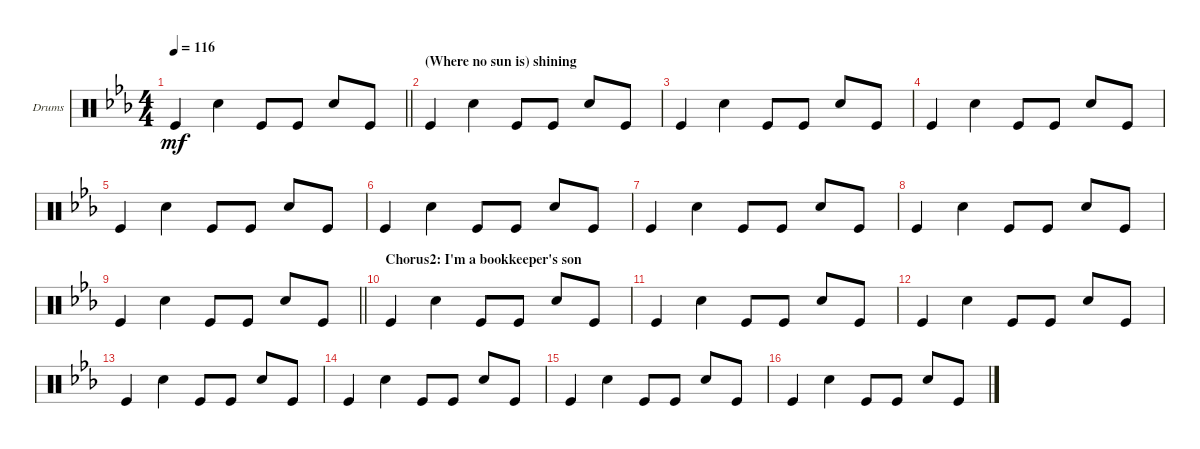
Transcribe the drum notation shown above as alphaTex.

\defaultSystemsLayout 4
\bracketExtendMode groupsimilarinstruments
\firstSystemTrackNameOrientation horizontal
\otherSystemsTrackNameOrientation horizontal
\track ("Drumkit" "Drums") {instrument percussion}
\staff {score}
\articulation defaults
\ts (4 4)
\tempo 116
\clef neutral
\barLineRight lightlight
\ks cminor "Kick (hit)".4{dy mf} "Snare (hit) 2".4 "Kick (hit)".8 "Kick (hit)".8 "Snare (hit) 2".8 "Kick (hit)".8
|
\section ("" "(Where no sun is) shining")
"Kick (hit)".4 "Snare (hit) 2".4 "Kick (hit)".8 "Kick (hit)".8 "Snare (hit) 2".8 "Kick (hit)".8 |
"Kick (hit)".4 "Snare (hit) 2".4 "Kick (hit)".8 "Kick (hit)".8 "Snare (hit) 2".8 "Kick (hit)".8 |
"Kick (hit)".4 "Snare (hit) 2".4 "Kick (hit)".8 "Kick (hit)".8 "Snare (hit) 2".8 "Kick (hit)".8 |
"Kick (hit)".4 "Snare (hit) 2".4 "Kick (hit)".8 "Kick (hit)".8 "Snare (hit) 2".8 "Kick (hit)".8 |
"Kick (hit)".4 "Snare (hit) 2".4 "Kick (hit)".8 "Kick (hit)".8 "Snare (hit) 2".8 "Kick (hit)".8 |
"Kick (hit)".4 "Snare (hit) 2".4 "Kick (hit)".8 "Kick (hit)".8 "Snare (hit) 2".8 "Kick (hit)".8 |
"Kick (hit)".4 "Snare (hit) 2".4 "Kick (hit)".8 "Kick (hit)".8 "Snare (hit) 2".8 "Kick (hit)".8 |
\scale
0.627769
\barLineRight lightlight "Kick (hit)".4 "Snare (hit) 2".4 "Kick (hit)".8 "Kick (hit)".8 "Snare (hit) 2".8 "Kick (hit)".8
|
\section ("" "Chorus2: I'm a bookkeeper's son")
\scale
0.37206 "Kick (hit)".4 "Snare (hit) 2".4 "Kick (hit)".8 "Kick (hit)".8 "Snare (hit) 2".8 "Kick (hit)".8 |
\scale
0.396721 "Kick (hit)".4 "Snare (hit) 2".4 "Kick (hit)".8 "Kick (hit)".8 "Snare (hit) 2".8 "Kick (hit)".8 |
\scale
0.348334 "Kick (hit)".4 "Snare (hit) 2".4 "Kick (hit)".8 "Kick (hit)".8 "Snare (hit) 2".8 "Kick (hit)".8 |
\scale
0.257554 "Kick (hit)".4 "Snare (hit) 2".4 "Kick (hit)".8 "Kick (hit)".8 "Snare (hit) 2".8 "Kick (hit)".8 |
"Kick (hit)".4 "Snare (hit) 2".4 "Kick (hit)".8 "Kick (hit)".8 "Snare (hit) 2".8 "Kick (hit)".8 |
"Kick (hit)".4 "Snare (hit) 2".4 "Kick (hit)".8 "Kick (hit)".8 "Snare (hit) 2".8 "Kick (hit)".8 |
"Kick (hit)".4 "Snare (hit) 2".4 "Kick (hit)".8 "Kick (hit)".8 "Snare (hit) 2".8 "Kick (hit)".8
